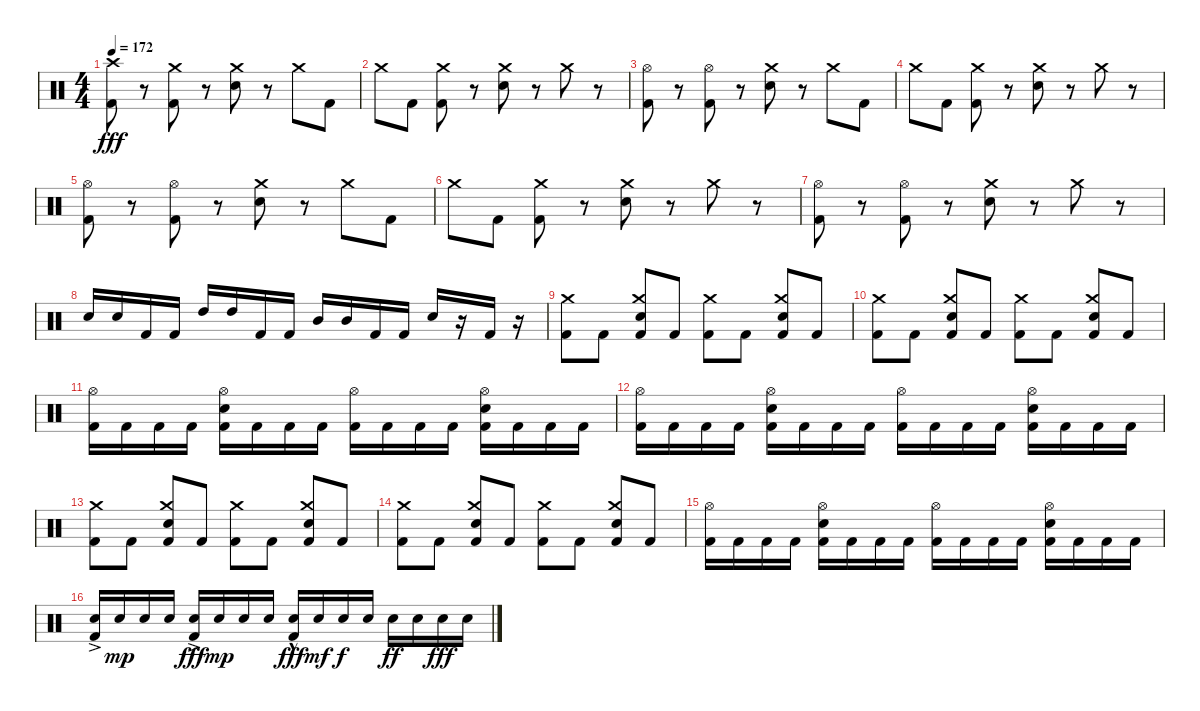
\track (" " " ") {instrument percussion}
\staff {score}
\articulation defaults
\ts (4 4)
\tempo 172
\clef neutral
\ks c
("Crash high (hit)" "Kick (hit) 2").8{dy fff} r.8 ("Crash medium (hit)" "Kick (hit) 2").8 r.8 ("Crash medium (hit)" "Snare (hit) 2").8 r.8 "Crash medium (hit)".8 "Kick (hit) 2".8 |
"Crash medium (hit)".8 "Kick (hit) 2".8 ("Crash medium (hit)" "Kick (hit) 2").8 r.8 ("Crash medium (hit)" "Snare (hit) 2").8 r.8 "Crash medium (hit)".8 r.8 |
("Hi-Hat (open)" "Kick (hit) 2").8 r.8 ("Hi-Hat (open)" "Kick (hit) 2").8 r.8 ("Crash medium (hit)" "Snare (hit) 2").8 r.8 "Crash medium (hit)".8 "Kick (hit) 2".8 |
"Crash medium (hit)".8 "Kick (hit) 2".8 ("Crash medium (hit)" "Kick (hit) 2").8 r.8 ("Crash medium (hit)" "Snare (hit) 2").8 r.8 "Crash medium (hit)".8 r.8 |
("Hi-Hat (open)" "Kick (hit) 2").8 r.8 ("Hi-Hat (open)" "Kick (hit) 2").8 r.8 ("Crash medium (hit)" "Snare (hit) 2").8 r.8 "Crash medium (hit)".8 "Kick (hit) 2".8 |
"Crash medium (hit)".8 "Kick (hit) 2".8 ("Crash medium (hit)" "Kick (hit) 2").8 r.8 ("Crash medium (hit)" "Snare (hit) 2").8 r.8 "Crash medium (hit)".8 r.8 |
("Hi-Hat (open)" "Kick (hit) 2").8 r.8 ("Hi-Hat (open)" "Kick (hit) 2").8 r.8 ("Crash medium (hit)" "Snare (hit) 2").8 r.8 "Crash medium (hit)".8 r.8 |
"Snare (hit) 2".16 "Snare (hit) 2".16 "Kick (hit) 2".16 "Kick (hit) 2".16 "High Tom (hit)".16 "High Tom (hit)".16 "Kick (hit) 2".16 "Kick (hit) 2".16 "Mid Tom (hit)".16 "Mid Tom (hit)".16 "Kick (hit) 2".16 "Kick (hit) 2".16 "Snare (hit) 2".16 r.16 "Kick (hit) 2".16 r.16 |
("Crash medium (hit)" "Kick (hit) 2").8 "Kick (hit) 2".8 ("Crash medium (hit)" "Snare (hit) 2" "Kick (hit) 2").8 "Kick (hit) 2".8 ("Crash medium (hit)" "Kick (hit) 2").8 "Kick (hit) 2".8 ("Crash medium (hit)" "Snare (hit) 2" "Kick (hit) 2").8 "Kick (hit) 2".8 |
("Crash medium (hit)" "Kick (hit) 2").8 "Kick (hit) 2".8 ("Crash medium (hit)" "Snare (hit) 2" "Kick (hit) 2").8 "Kick (hit) 2".8 ("Crash medium (hit)" "Kick (hit) 2").8 "Kick (hit) 2".8 ("Crash medium (hit)" "Snare (hit) 2" "Kick (hit) 2").8 "Kick (hit) 2".8 |
("Hi-Hat (open)" "Kick (hit) 2").16 "Kick (hit) 2".16 "Kick (hit) 2".16 "Kick (hit) 2".16 ("Hi-Hat (open)" "Snare (hit) 2" "Kick (hit) 2").16 "Kick (hit) 2".16 "Kick (hit) 2".16 "Kick (hit) 2".16 ("Hi-Hat (open)" "Kick (hit) 2").16 "Kick (hit) 2".16 "Kick (hit) 2".16 "Kick (hit) 2".16 ("Hi-Hat (open)" "Snare (hit) 2" "Kick (hit) 2").16 "Kick (hit) 2".16 "Kick (hit) 2".16 "Kick (hit) 2".16 |
("Hi-Hat (open)" "Kick (hit) 2").16 "Kick (hit) 2".16 "Kick (hit) 2".16 "Kick (hit) 2".16 ("Hi-Hat (open)" "Snare (hit) 2" "Kick (hit) 2").16 "Kick (hit) 2".16 "Kick (hit) 2".16 "Kick (hit) 2".16 ("Hi-Hat (open)" "Kick (hit) 2").16 "Kick (hit) 2".16 "Kick (hit) 2".16 "Kick (hit) 2".16 ("Hi-Hat (open)" "Snare (hit) 2" "Kick (hit) 2").16 "Kick (hit) 2".16 "Kick (hit) 2".16 "Kick (hit) 2".16 |
("Crash medium (hit)" "Kick (hit) 2").8 "Kick (hit) 2".8 ("Crash medium (hit)" "Snare (hit) 2" "Kick (hit) 2").8 "Kick (hit) 2".8 ("Crash medium (hit)" "Kick (hit) 2").8 "Kick (hit) 2".8 ("Crash medium (hit)" "Snare (hit) 2" "Kick (hit) 2").8 "Kick (hit) 2".8 |
("Crash medium (hit)" "Kick (hit) 2").8 "Kick (hit) 2".8 ("Crash medium (hit)" "Snare (hit) 2" "Kick (hit) 2").8 "Kick (hit) 2".8 ("Crash medium (hit)" "Kick (hit) 2").8 "Kick (hit) 2".8 ("Crash medium (hit)" "Snare (hit) 2" "Kick (hit) 2").8 "Kick (hit) 2".8 |
("Hi-Hat (open)" "Kick (hit) 2").16 "Kick (hit) 2".16 "Kick (hit) 2".16 "Kick (hit) 2".16 ("Hi-Hat (open)" "Snare (hit) 2" "Kick (hit) 2").16 "Kick (hit) 2".16 "Kick (hit) 2".16 "Kick (hit) 2".16 ("Hi-Hat (open)" "Kick (hit) 2").16 "Kick (hit) 2".16 "Kick (hit) 2".16 "Kick (hit) 2".16 ("Hi-Hat (open)" "Snare (hit) 2" "Kick (hit) 2").16 "Kick (hit) 2".16 "Kick (hit) 2".16 "Kick (hit) 2".16 |
("Snare (hit) 2"{ac} "Kick (hit) 2").16 "Snare (hit) 2".16{dy mp} "Snare (hit) 2".16 "Snare (hit) 2".16 ("Snare (hit) 2"{ac} "Kick (hit) 2").16{dy fff} "Snare (hit) 2".16{dy mp} "Snare (hit) 2".16 "Snare (hit) 2".16 ("Snare (hit) 2"{hac} "Kick (hit) 2").16{dy fff} "Snare (hit) 2".16{dy mf} "Snare (hit) 2".16{dy f} "Snare (hit) 2".16 "Snare (hit) 2".16{dy ff} "Snare (hit) 2".16 "Snare (hit) 2".16{dy fff} "Snare (hit) 2".16
